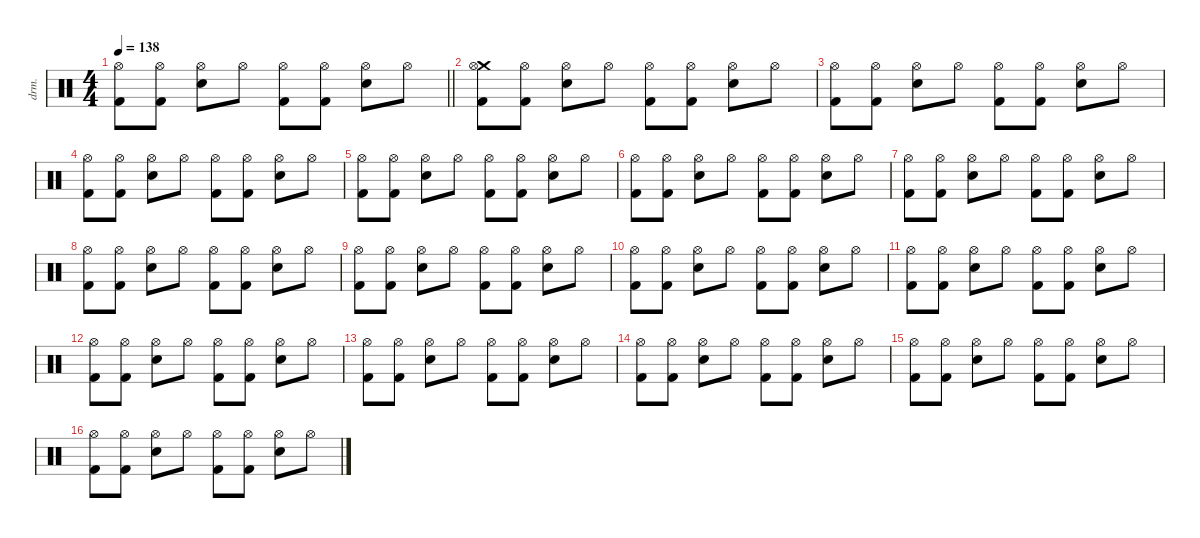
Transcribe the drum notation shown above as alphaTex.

\defaultSystemsLayout 4
\hideDynamics
\bracketExtendMode nobrackets
\otherSystemsTrackNameOrientation horizontal
\track ("Alex Van Halen " "drm.") {instrument percussion}
\staff {score}
\articulation defaults
\ts (4 4)
\tempo 138
\clef neutral
\barLineRight lightlight
\ks c
("Hi-Hat (open)" "Kick (hit) 2").8{dy f beam Down} ("Hi-Hat (open)" "Kick (hit) 2").8{beam Down} ("Hi-Hat (open)" "Snare (hit) 2").8{beam Down} "Hi-Hat (open)".8{beam Down} ("Hi-Hat (open)" "Kick (hit) 2").8{beam Down} ("Hi-Hat (open)" "Kick (hit) 2").8{beam Down} ("Hi-Hat (open)" "Snare (hit) 2").8{beam Down} "Hi-Hat (open)".8{beam Down} |
("Crash medium (hit)" "Hi-Hat (open)" "Kick (hit) 2").8{beam Down} ("Hi-Hat (open)" "Kick (hit) 2").8{beam Down} ("Hi-Hat (open)" "Snare (hit) 2").8{beam Down} "Hi-Hat (open)".8{beam Down} ("Hi-Hat (open)" "Kick (hit) 2").8{beam Down} ("Hi-Hat (open)" "Kick (hit) 2").8{beam Down} ("Hi-Hat (open)" "Snare (hit) 2").8{beam Down} "Hi-Hat (open)".8{beam Down} |
("Hi-Hat (open)" "Kick (hit) 2").8{beam Down} ("Hi-Hat (open)" "Kick (hit) 2").8{beam Down} ("Hi-Hat (open)" "Snare (hit) 2").8{beam Down} "Hi-Hat (open)".8{beam Down} ("Hi-Hat (open)" "Kick (hit) 2").8{beam Down} ("Hi-Hat (open)" "Kick (hit) 2").8{beam Down} ("Hi-Hat (open)" "Snare (hit) 2").8{beam Down} "Hi-Hat (open)".8{beam Down} |
("Hi-Hat (open)" "Kick (hit) 2").8{beam Down} ("Hi-Hat (open)" "Kick (hit) 2").8{beam Down} ("Hi-Hat (open)" "Snare (hit) 2").8{beam Down} "Hi-Hat (open)".8{beam Down} ("Hi-Hat (open)" "Kick (hit) 2").8{beam Down} ("Hi-Hat (open)" "Kick (hit) 2").8{beam Down} ("Hi-Hat (open)" "Snare (hit) 2").8{beam Down} "Hi-Hat (open)".8{beam Down} |
("Hi-Hat (open)" "Kick (hit) 2").8{beam Down} ("Hi-Hat (open)" "Kick (hit) 2").8{beam Down} ("Hi-Hat (open)" "Snare (hit) 2").8{beam Down} "Hi-Hat (open)".8{beam Down} ("Hi-Hat (open)" "Kick (hit) 2").8{beam Down} ("Hi-Hat (open)" "Kick (hit) 2").8{beam Down} ("Hi-Hat (open)" "Snare (hit) 2").8{beam Down} "Hi-Hat (open)".8{beam Down} |
("Hi-Hat (open)" "Kick (hit) 2").8{beam Down} ("Hi-Hat (open)" "Kick (hit) 2").8{beam Down} ("Hi-Hat (open)" "Snare (hit) 2").8{beam Down} "Hi-Hat (open)".8{beam Down} ("Hi-Hat (open)" "Kick (hit) 2").8{beam Down} ("Hi-Hat (open)" "Kick (hit) 2").8{beam Down} ("Hi-Hat (open)" "Snare (hit) 2").8{beam Down} "Hi-Hat (open)".8{beam Down} |
("Hi-Hat (open)" "Kick (hit) 2").8{beam Down} ("Hi-Hat (open)" "Kick (hit) 2").8{beam Down} ("Hi-Hat (open)" "Snare (hit) 2").8{beam Down} "Hi-Hat (open)".8{beam Down} ("Hi-Hat (open)" "Kick (hit) 2").8{beam Down} ("Hi-Hat (open)" "Kick (hit) 2").8{beam Down} ("Hi-Hat (open)" "Snare (hit) 2").8{beam Down} "Hi-Hat (open)".8{beam Down} |
("Hi-Hat (open)" "Kick (hit) 2").8{beam Down} ("Hi-Hat (open)" "Kick (hit) 2").8{beam Down} ("Hi-Hat (open)" "Snare (hit) 2").8{beam Down} "Hi-Hat (open)".8{beam Down} ("Hi-Hat (open)" "Kick (hit) 2").8{beam Down} ("Hi-Hat (open)" "Kick (hit) 2").8{beam Down} ("Hi-Hat (open)" "Snare (hit) 2").8{beam Down} "Hi-Hat (open)".8{beam Down} |
("Hi-Hat (open)" "Kick (hit) 2").8{beam Down} ("Hi-Hat (open)" "Kick (hit) 2").8{beam Down} ("Hi-Hat (open)" "Snare (hit) 2").8{beam Down} "Hi-Hat (open)".8{beam Down} ("Hi-Hat (open)" "Kick (hit) 2").8{beam Down} ("Hi-Hat (open)" "Kick (hit) 2").8{beam Down} ("Hi-Hat (open)" "Snare (hit) 2").8{beam Down} "Hi-Hat (open)".8{beam Down} |
("Hi-Hat (open)" "Kick (hit) 2").8{beam Down} ("Hi-Hat (open)" "Kick (hit) 2").8{beam Down} ("Hi-Hat (open)" "Snare (hit) 2").8{beam Down} "Hi-Hat (open)".8{beam Down} ("Hi-Hat (open)" "Kick (hit) 2").8{beam Down} ("Hi-Hat (open)" "Kick (hit) 2").8{beam Down} ("Hi-Hat (open)" "Snare (hit) 2").8{beam Down} "Hi-Hat (open)".8{beam Down} |
("Hi-Hat (open)" "Kick (hit) 2").8{beam Down} ("Hi-Hat (open)" "Kick (hit) 2").8{beam Down} ("Hi-Hat (open)" "Snare (hit) 2").8{beam Down} "Hi-Hat (open)".8{beam Down} ("Hi-Hat (open)" "Kick (hit) 2").8{beam Down} ("Hi-Hat (open)" "Kick (hit) 2").8{beam Down} ("Hi-Hat (open)" "Snare (hit) 2").8{beam Down} "Hi-Hat (open)".8{beam Down} |
("Hi-Hat (open)" "Kick (hit) 2").8{beam Down} ("Hi-Hat (open)" "Kick (hit) 2").8{beam Down} ("Hi-Hat (open)" "Snare (hit) 2").8{beam Down} "Hi-Hat (open)".8{beam Down} ("Hi-Hat (open)" "Kick (hit) 2").8{beam Down} ("Hi-Hat (open)" "Kick (hit) 2").8{beam Down} ("Hi-Hat (open)" "Snare (hit) 2").8{beam Down} "Hi-Hat (open)".8{beam Down} |
("Hi-Hat (open)" "Kick (hit) 2").8{beam Down} ("Hi-Hat (open)" "Kick (hit) 2").8{beam Down} ("Hi-Hat (open)" "Snare (hit) 2").8{beam Down} "Hi-Hat (open)".8{beam Down} ("Hi-Hat (open)" "Kick (hit) 2").8{beam Down} ("Hi-Hat (open)" "Kick (hit) 2").8{beam Down} ("Hi-Hat (open)" "Snare (hit) 2").8{beam Down} "Hi-Hat (open)".8{beam Down} |
("Hi-Hat (open)" "Kick (hit) 2").8{beam Down} ("Hi-Hat (open)" "Kick (hit) 2").8{beam Down} ("Hi-Hat (open)" "Snare (hit) 2").8{beam Down} "Hi-Hat (open)".8{beam Down} ("Hi-Hat (open)" "Kick (hit) 2").8{beam Down} ("Hi-Hat (open)" "Kick (hit) 2").8{beam Down} ("Hi-Hat (open)" "Snare (hit) 2").8{beam Down} "Hi-Hat (open)".8{beam Down} |
("Hi-Hat (open)" "Kick (hit) 2").8{beam Down} ("Hi-Hat (open)" "Kick (hit) 2").8{beam Down} ("Hi-Hat (open)" "Snare (hit) 2").8{beam Down} "Hi-Hat (open)".8{beam Down} ("Hi-Hat (open)" "Kick (hit) 2").8{beam Down} ("Hi-Hat (open)" "Kick (hit) 2").8{beam Down} ("Hi-Hat (open)" "Snare (hit) 2").8{beam Down} "Hi-Hat (open)".8{beam Down} |
("Hi-Hat (open)" "Kick (hit) 2").8{beam Down} ("Hi-Hat (open)" "Kick (hit) 2").8{beam Down} ("Hi-Hat (open)" "Snare (hit) 2").8{beam Down} "Hi-Hat (open)".8{beam Down} ("Hi-Hat (open)" "Kick (hit) 2").8{beam Down} ("Hi-Hat (open)" "Kick (hit) 2").8{beam Down} ("Hi-Hat (open)" "Snare (hit) 2").8{beam Down} "Hi-Hat (open)".8{beam Down}
